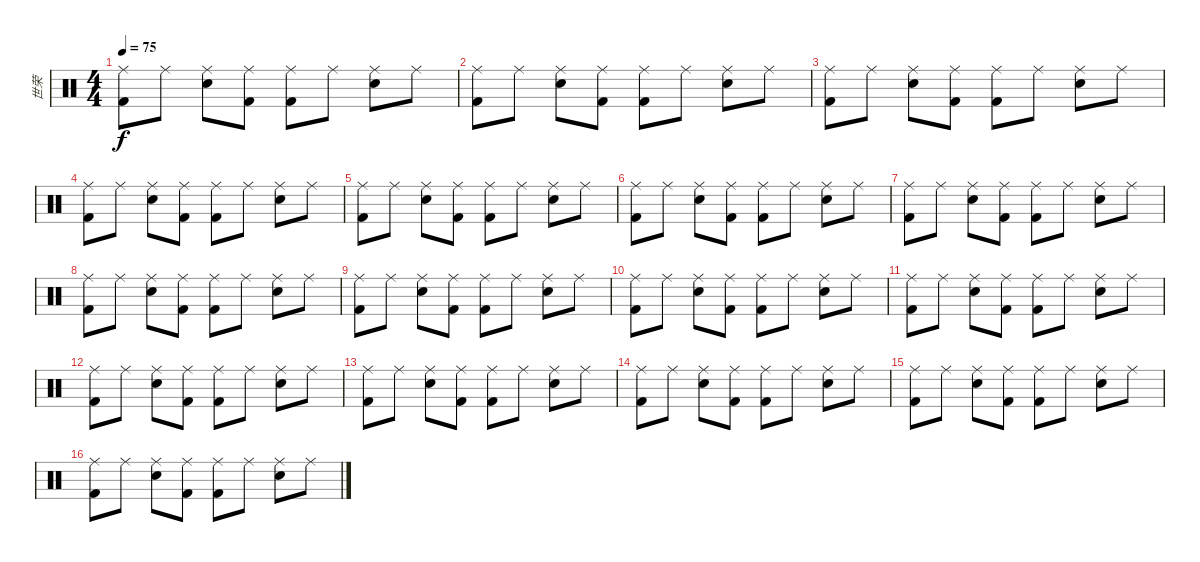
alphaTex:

\track ("世荣" "世荣") {instrument percussion}
\staff {score}
\articulation defaults
\ts (4 4)
\tempo 75
\clef neutral
\ks c
("Ride (middle)" "Kick (hit) 2").8{dy f} "Ride (middle)".8 ("Ride (middle)" "Electric Snare (hit)").8 ("Ride (middle)" "Kick (hit) 2").8 ("Ride (middle)" "Kick (hit) 2").8 "Ride (middle)".8 ("Ride (middle)" "Electric Snare (hit)").8 "Ride (middle)".8 |
("Ride (middle)" "Kick (hit) 2").8 "Ride (middle)".8 ("Ride (middle)" "Electric Snare (hit)").8 ("Ride (middle)" "Kick (hit) 2").8 ("Ride (middle)" "Kick (hit) 2").8 "Ride (middle)".8 ("Ride (middle)" "Electric Snare (hit)").8 "Ride (middle)".8 |
("Ride (middle)" "Kick (hit) 2").8 "Ride (middle)".8 ("Ride (middle)" "Electric Snare (hit)").8 ("Ride (middle)" "Kick (hit) 2").8 ("Ride (middle)" "Kick (hit) 2").8 "Ride (middle)".8 ("Ride (middle)" "Electric Snare (hit)").8 "Ride (middle)".8 |
("Ride (middle)" "Kick (hit) 2").8 "Ride (middle)".8 ("Ride (middle)" "Electric Snare (hit)").8 ("Ride (middle)" "Kick (hit) 2").8 ("Ride (middle)" "Kick (hit) 2").8 "Ride (middle)".8 ("Ride (middle)" "Electric Snare (hit)").8 "Ride (middle)".8 |
("Ride (middle)" "Kick (hit) 2").8 "Ride (middle)".8 ("Ride (middle)" "Electric Snare (hit)").8 ("Ride (middle)" "Kick (hit) 2").8 ("Ride (middle)" "Kick (hit) 2").8 "Ride (middle)".8 ("Ride (middle)" "Electric Snare (hit)").8 "Ride (middle)".8 |
("Ride (middle)" "Kick (hit) 2").8 "Ride (middle)".8 ("Ride (middle)" "Electric Snare (hit)").8 ("Ride (middle)" "Kick (hit) 2").8 ("Ride (middle)" "Kick (hit) 2").8 "Ride (middle)".8 ("Ride (middle)" "Electric Snare (hit)").8 "Ride (middle)".8 |
("Ride (middle)" "Kick (hit) 2").8 "Ride (middle)".8 ("Ride (middle)" "Electric Snare (hit)").8 ("Ride (middle)" "Kick (hit) 2").8 ("Ride (middle)" "Kick (hit) 2").8 "Ride (middle)".8 ("Ride (middle)" "Electric Snare (hit)").8 "Ride (middle)".8 |
("Ride (middle)" "Kick (hit) 2").8 "Ride (middle)".8 ("Ride (middle)" "Electric Snare (hit)").8 ("Ride (middle)" "Kick (hit) 2").8 ("Ride (middle)" "Kick (hit) 2").8 "Ride (middle)".8 ("Ride (middle)" "Electric Snare (hit)").8 "Ride (middle)".8 |
("Ride (middle)" "Kick (hit) 2").8 "Ride (middle)".8 ("Ride (middle)" "Electric Snare (hit)").8 ("Ride (middle)" "Kick (hit) 2").8 ("Ride (middle)" "Kick (hit) 2").8 "Ride (middle)".8 ("Ride (middle)" "Electric Snare (hit)").8 "Ride (middle)".8 |
("Ride (middle)" "Kick (hit) 2").8 "Ride (middle)".8 ("Ride (middle)" "Electric Snare (hit)").8 ("Ride (middle)" "Kick (hit) 2").8 ("Ride (middle)" "Kick (hit) 2").8 "Ride (middle)".8 ("Ride (middle)" "Electric Snare (hit)").8 "Ride (middle)".8 |
("Ride (middle)" "Kick (hit) 2").8 "Ride (middle)".8 ("Ride (middle)" "Electric Snare (hit)").8 ("Ride (middle)" "Kick (hit) 2").8 ("Ride (middle)" "Kick (hit) 2").8 "Ride (middle)".8 ("Ride (middle)" "Electric Snare (hit)").8 "Ride (middle)".8 |
("Ride (middle)" "Kick (hit) 2").8 "Ride (middle)".8 ("Ride (middle)" "Electric Snare (hit)").8 ("Ride (middle)" "Kick (hit) 2").8 ("Ride (middle)" "Kick (hit) 2").8 "Ride (middle)".8 ("Ride (middle)" "Electric Snare (hit)").8 "Ride (middle)".8 |
("Ride (middle)" "Kick (hit) 2").8 "Ride (middle)".8 ("Ride (middle)" "Electric Snare (hit)").8 ("Ride (middle)" "Kick (hit) 2").8 ("Ride (middle)" "Kick (hit) 2").8 "Ride (middle)".8 ("Ride (middle)" "Electric Snare (hit)").8 "Ride (middle)".8 |
("Ride (middle)" "Kick (hit) 2").8 "Ride (middle)".8 ("Ride (middle)" "Electric Snare (hit)").8 ("Ride (middle)" "Kick (hit) 2").8 ("Ride (middle)" "Kick (hit) 2").8 "Ride (middle)".8 ("Ride (middle)" "Electric Snare (hit)").8 "Ride (middle)".8 |
("Ride (middle)" "Kick (hit) 2").8 "Ride (middle)".8 ("Ride (middle)" "Electric Snare (hit)").8 ("Ride (middle)" "Kick (hit) 2").8 ("Ride (middle)" "Kick (hit) 2").8 "Ride (middle)".8 ("Ride (middle)" "Electric Snare (hit)").8 "Ride (middle)".8 |
("Ride (middle)" "Kick (hit) 2").8 "Ride (middle)".8 ("Ride (middle)" "Electric Snare (hit)").8 ("Ride (middle)" "Kick (hit) 2").8 ("Ride (middle)" "Kick (hit) 2").8 "Ride (middle)".8 ("Ride (middle)" "Electric Snare (hit)").8 "Ride (middle)".8
